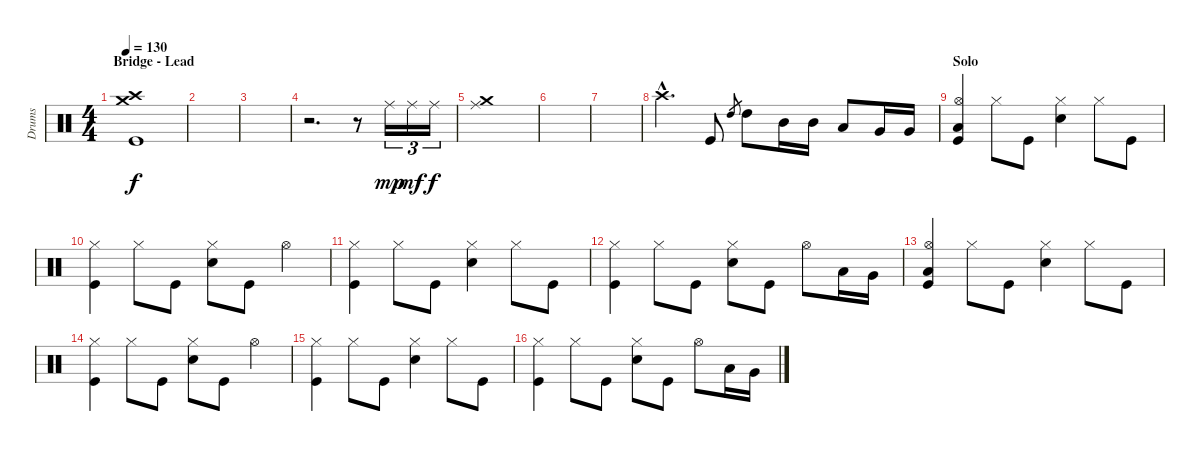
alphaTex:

\track ("Drums" "Drums") {instrument percussion}
\staff {score}
\articulation defaults
\ts (4 4)
\section ("" "Bridge - Lead")
\tempo 130
\clef neutral
\ks c
("Crash high (hit)" "Crash medium (hit)" "Kick (hit)").1{dy f} |
|
|
r.2{d} r.8 "Ride (middle)".16{tu (3 2) dy mp} "Ride (middle)".16{tu (3 2) dy mf} "Ride (middle)".16{tu (3 2) dy f} |
("Crash medium (hit)" "Ride (middle)").1 |
|
|
"Crash high (hit)"{hac}.4{d} "Kick (hit)".8 "High Tom (hit)".8{gr} "High Tom (hit)".8 "Mid Tom (hit)".16 "Mid Tom (hit)".16 "Low Tom (hit)".8 "Very Low Tom (hit)".16 "Very Low Tom (hit)".16 |
\section ("" "Solo")
("Hi-Hat (open)" "Low Floor Tom (hit)" "Kick (hit)").4 "Hi-Hat (closed)".8 "Kick (hit)".8 ("Hi-Hat (closed)" "Snare (hit) 2").4 "Hi-Hat (closed)".8 "Kick (hit)".8 |
("Hi-Hat (closed)" "Kick (hit)").4 "Hi-Hat (closed)".8 "Kick (hit)".8 ("Hi-Hat (closed)" "Snare (hit) 2").8 "Kick (hit)".8 "Hi-Hat (open)".4 |
("Hi-Hat (closed)" "Kick (hit)").4 "Hi-Hat (closed)".8 "Kick (hit)".8 ("Hi-Hat (closed)" "Snare (hit) 2").4 "Hi-Hat (closed)".8 "Kick (hit)".8 |
("Hi-Hat (closed)" "Kick (hit)").4 "Hi-Hat (closed)".8 "Kick (hit)".8 ("Hi-Hat (closed)" "Snare (hit) 2").8 "Kick (hit)".8 "Hi-Hat (open)".8 "Low Tom (hit)".16 "Very Low Tom (hit)".16 |
("Hi-Hat (open)" "Low Floor Tom (hit)" "Kick (hit)").4 "Hi-Hat (closed)".8 "Kick (hit)".8 ("Hi-Hat (closed)" "Snare (hit) 2").4 "Hi-Hat (closed)".8 "Kick (hit)".8 |
("Hi-Hat (closed)" "Kick (hit)").4 "Hi-Hat (closed)".8 "Kick (hit)".8 ("Hi-Hat (closed)" "Snare (hit) 2").8 "Kick (hit)".8 "Hi-Hat (open)".4 |
("Hi-Hat (closed)" "Kick (hit)").4 "Hi-Hat (closed)".8 "Kick (hit)".8 ("Hi-Hat (closed)" "Snare (hit) 2").4 "Hi-Hat (closed)".8 "Kick (hit)".8 |
("Hi-Hat (closed)" "Kick (hit)").4 "Hi-Hat (closed)".8 "Kick (hit)".8 ("Hi-Hat (closed)" "Snare (hit) 2").8 "Kick (hit)".8 "Hi-Hat (open)".8 "Low Tom (hit)".16 "Very Low Tom (hit)".16
